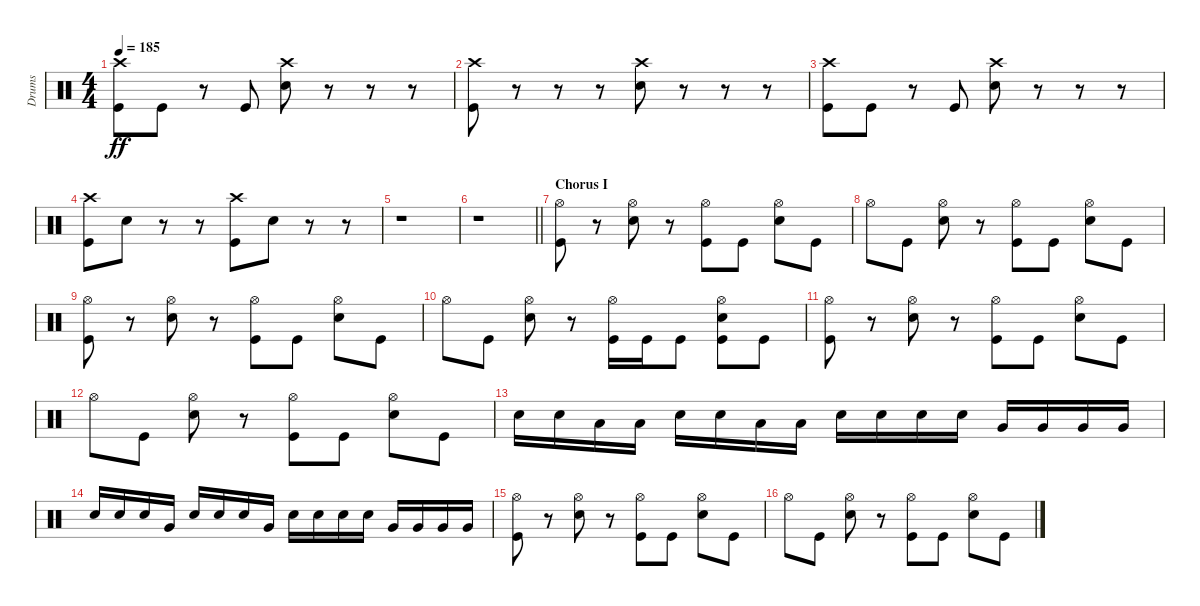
\track ("Drums" "Drums") {instrument percussion}
\staff {score}
\articulation defaults
\ts (4 4)
\tempo 185
\clef neutral
\ks c
("Crash high (hit)" "Kick (hit)").8{dy ff} "Kick (hit)".8 r.8 "Kick (hit)".8 ("Crash high (hit)" "Electric Snare (hit)").8 r.8 r.8 r.8 |
("Crash high (hit)" "Kick (hit)").8 r.8 r.8 r.8 ("Crash high (hit)" "Electric Snare (hit)").8 r.8 r.8 r.8 |
("Crash high (hit)" "Kick (hit)").8 "Kick (hit)".8 r.8 "Kick (hit)".8 ("Crash high (hit)" "Electric Snare (hit)").8 r.8 r.8 r.8 |
("Crash high (hit)" "Kick (hit)").8 "Electric Snare (hit)".8 r.8 r.8 ("Crash high (hit)" "Kick (hit)").8 "Electric Snare (hit)".8 r.8 r.8 |
r.1 |
\barLineRight lightlight
r.1 |
\section ("" "Chorus I")
("Hi-Hat (open)" "Kick (hit)").8 r.8 ("Hi-Hat (open)" "Electric Snare (hit)").8 r.8 ("Hi-Hat (open)" "Kick (hit)").8 "Kick (hit)".8 ("Hi-Hat (open)" "Electric Snare (hit)").8 "Kick (hit)".8 |
"Hi-Hat (open)".8 "Kick (hit)".8 ("Hi-Hat (open)" "Electric Snare (hit)").8 r.8 ("Hi-Hat (open)" "Kick (hit)").8 "Kick (hit)".8 ("Hi-Hat (open)" "Electric Snare (hit)").8 "Kick (hit)".8 |
("Hi-Hat (open)" "Kick (hit)").8 r.8 ("Hi-Hat (open)" "Electric Snare (hit)").8 r.8 ("Hi-Hat (open)" "Kick (hit)").8 "Kick (hit)".8 ("Hi-Hat (open)" "Electric Snare (hit)").8 "Kick (hit)".8 |
"Hi-Hat (open)".8 "Kick (hit)".8 ("Hi-Hat (open)" "Electric Snare (hit)").8 r.8 ("Hi-Hat (open)" "Kick (hit)").16 "Kick (hit)".16 "Kick (hit)".8 ("Hi-Hat (open)" "Electric Snare (hit)" "Kick (hit)").8 "Kick (hit)".8 |
("Hi-Hat (open)" "Kick (hit)").8 r.8 ("Hi-Hat (open)" "Electric Snare (hit)").8 r.8 ("Hi-Hat (open)" "Kick (hit)").8 "Kick (hit)".8 ("Hi-Hat (open)" "Electric Snare (hit)").8 "Kick (hit)".8 |
"Hi-Hat (open)".8 "Kick (hit)".8 ("Hi-Hat (open)" "Electric Snare (hit)").8 r.8 ("Hi-Hat (open)" "Kick (hit)").8 "Kick (hit)".8 ("Hi-Hat (open)" "Electric Snare (hit)").8 "Kick (hit)".8 |
"Electric Snare (hit)".16 "Electric Snare (hit)".16 "Low Tom (hit)".16 "Low Tom (hit)".16 "Electric Snare (hit)".16 "Electric Snare (hit)".16 "Low Tom (hit)".16 "Low Tom (hit)".16 "Electric Snare (hit)".16 "Electric Snare (hit)".16 "Electric Snare (hit)".16 "Electric Snare (hit)".16 "Very Low Tom (hit)".16 "Very Low Tom (hit)".16 "Very Low Tom (hit)".16 "Very Low Tom (hit)".16 |
"Electric Snare (hit)".16 "Electric Snare (hit)".16 "Electric Snare (hit)".16 "Very Low Tom (hit)".16 "Electric Snare (hit)".16 "Electric Snare (hit)".16 "Electric Snare (hit)".16 "Very Low Tom (hit)".16 "Electric Snare (hit)".16 "Electric Snare (hit)".16 "Electric Snare (hit)".16 "Electric Snare (hit)".16 "Very Low Tom (hit)".16 "Very Low Tom (hit)".16 "Very Low Tom (hit)".16 "Very Low Tom (hit)".16 |
("Hi-Hat (open)" "Kick (hit)").8 r.8 ("Hi-Hat (open)" "Electric Snare (hit)").8 r.8 ("Hi-Hat (open)" "Kick (hit)").8 "Kick (hit)".8 ("Hi-Hat (open)" "Electric Snare (hit)").8 "Kick (hit)".8 |
"Hi-Hat (open)".8 "Kick (hit)".8 ("Hi-Hat (open)" "Electric Snare (hit)").8 r.8 ("Hi-Hat (open)" "Kick (hit)").8 "Kick (hit)".8 ("Hi-Hat (open)" "Electric Snare (hit)").8 "Kick (hit)".8
